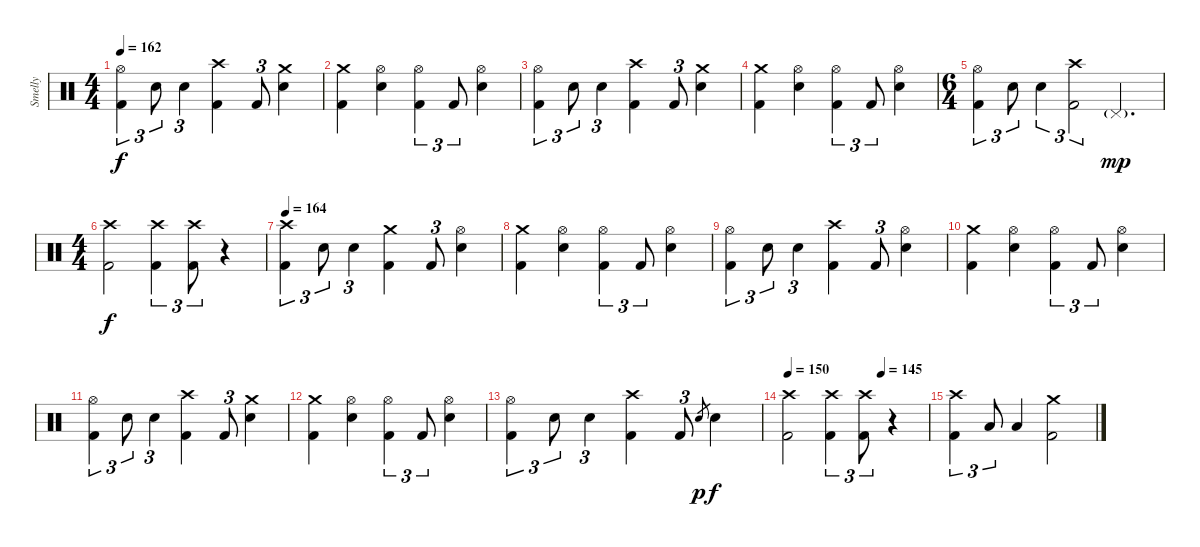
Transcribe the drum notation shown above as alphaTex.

\track ("Smelly" "Smelly") {instrument percussion}
\staff {score}
\articulation defaults
\ts (4 4)
\tempo 162
\clef neutral
\ks c
("Hi-Hat (open)" "Kick (hit) 2").4{tu (3 2) dy f} "Electric Snare (hit)".8{tu (3 2)} "Electric Snare (hit)".4{tu (3 2)} ("Crash high (hit)" "Kick (hit) 2").4 "Kick (hit) 2".8{tu (3 2)} ("Crash medium (hit)" "Electric Snare (hit)").4 |
("Crash medium (hit)" "Kick (hit) 2").4 ("Hi-Hat (open)" "Electric Snare (hit)").4 ("Hi-Hat (open)" "Kick (hit) 2").4{tu (3 2)} "Kick (hit) 2".8{tu (3 2)} ("Hi-Hat (open)" "Electric Snare (hit)").4 |
("Hi-Hat (open)" "Kick (hit) 2").4{tu (3 2)} "Electric Snare (hit)".8{tu (3 2)} "Electric Snare (hit)".4{tu (3 2)} ("Crash high (hit)" "Kick (hit) 2").4 "Kick (hit) 2".8{tu (3 2)} ("Crash medium (hit)" "Electric Snare (hit)").4 |
("Crash medium (hit)" "Kick (hit) 2").4 ("Hi-Hat (open)" "Electric Snare (hit)").4 ("Hi-Hat (open)" "Kick (hit) 2").4{tu (3 2)} "Kick (hit) 2".8{tu (3 2)} ("Hi-Hat (open)" "Electric Snare (hit)").4 |
\ts (6 4)
("Hi-Hat (open)" "Kick (hit) 2").4{tu (3 2)} "Electric Snare (hit)".8{tu (3 2)} "Electric Snare (hit)".4{tu (3 2)} ("Crash high (hit)" "Kick (hit) 2").2{tu (3 2)} "Pedal Hi-Hat (hit)"{g}.2{d dy mp} |
\ts (4 4)
("Crash high (hit)" "Kick (hit) 2").2{dy f} ("Crash high (hit)" "Kick (hit) 2").4{tu (3 2)} ("Crash high (hit)" "Kick (hit) 2").8{tu (3 2)} r.4 |
\tempo 164
("Crash high (hit)" "Kick (hit) 2").4{tu (3 2)} "Electric Snare (hit)".8{tu (3 2)} "Electric Snare (hit)".4{tu (3 2)} ("Crash medium (hit)" "Kick (hit) 2").4 "Kick (hit) 2".8{tu (3 2)} ("Hi-Hat (open)" "Electric Snare (hit)").4 |
("Crash medium (hit)" "Kick (hit) 2").4 ("Hi-Hat (open)" "Electric Snare (hit)").4 ("Hi-Hat (open)" "Kick (hit) 2").4{tu (3 2)} "Kick (hit) 2".8{tu (3 2)} ("Hi-Hat (open)" "Electric Snare (hit)").4 |
("Hi-Hat (open)" "Kick (hit) 2").4{tu (3 2)} "Electric Snare (hit)".8{tu (3 2)} "Electric Snare (hit)".4{tu (3 2)} ("Crash high (hit)" "Kick (hit) 2").4 "Kick (hit) 2".8{tu (3 2)} ("Hi-Hat (open)" "Electric Snare (hit)").4 |
("Crash medium (hit)" "Kick (hit) 2").4 ("Hi-Hat (open)" "Electric Snare (hit)").4 ("Hi-Hat (open)" "Kick (hit) 2").4{tu (3 2)} "Kick (hit) 2".8{tu (3 2)} ("Hi-Hat (open)" "Electric Snare (hit)").4 |
("Hi-Hat (open)" "Kick (hit) 2").4{tu (3 2)} "Electric Snare (hit)".8{tu (3 2)} "Electric Snare (hit)".4{tu (3 2)} ("Crash high (hit)" "Kick (hit) 2").4 "Kick (hit) 2".8{tu (3 2)} ("Crash medium (hit)" "Electric Snare (hit)").4 |
("Crash medium (hit)" "Kick (hit) 2").4 ("Hi-Hat (open)" "Electric Snare (hit)").4 ("Hi-Hat (open)" "Kick (hit) 2").4{tu (3 2)} "Kick (hit) 2".8{tu (3 2)} ("Hi-Hat (open)" "Electric Snare (hit)").4 |
("Hi-Hat (open)" "Kick (hit) 2").4{tu (3 2)} "Electric Snare (hit)".8{tu (3 2)} "Electric Snare (hit)".4{tu (3 2)} ("Crash high (hit)" "Kick (hit) 2").4 "Kick (hit) 2".8{tu (3 2)} "Electric Snare (hit)".8{gr dy p} "Electric Snare (hit)".4{dy f} |
\tempo 150
\tempo (145 0.6666666666666666)
("Crash high (hit)" "Kick (hit) 2").2 ("Crash high (hit)" "Kick (hit) 2").4{tu (3 2)} ("Crash high (hit)" "Kick (hit) 2").8{tu (3 2)} r.4 |
("Crash high (hit)" "Kick (hit) 2").4{tu (3 2)} "Low Tom (hit)".8{tu (3 2)} "Low Floor Tom (hit)".4 ("Crash medium (hit)" "Kick (hit) 2").2
